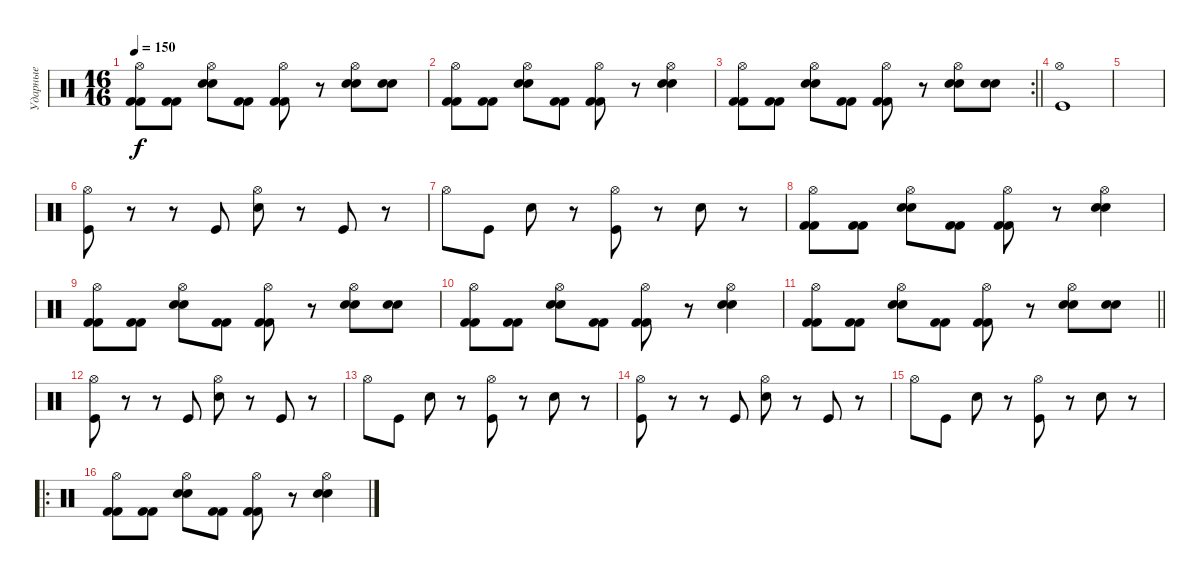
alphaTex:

\track ("Ударные" "Ударные") {instrument percussion}
\staff {score}
\articulation defaults
\ts (16 16)
\tempo 150
\clef neutral
\ks c
("Kick (hit) 2" "Kick (hit) 2" "Hi-Hat (open)").8{dy f} ("Kick (hit) 2" "Kick (hit) 2").8 ("Electric Snare (hit)" "Electric Snare (hit)" "Hi-Hat (open)").8 ("Kick (hit) 2" "Kick (hit) 2").8 ("Kick (hit) 2" "Kick (hit) 2" "Hi-Hat (open)").8 r.8 ("Electric Snare (hit)" "Electric Snare (hit)" "Hi-Hat (open)").8 ("Electric Snare (hit)" "Electric Snare (hit)").8 |
("Kick (hit) 2" "Kick (hit) 2" "Hi-Hat (open)").8 ("Kick (hit) 2" "Kick (hit) 2").8 ("Electric Snare (hit)" "Electric Snare (hit)" "Hi-Hat (open)").8 ("Kick (hit) 2" "Kick (hit) 2").8 ("Kick (hit) 2" "Kick (hit) 2" "Hi-Hat (open)").8 r.8 ("Electric Snare (hit)" "Electric Snare (hit)" "Hi-Hat (open)").4 |
\rc 2
\barLineRight lightlight
("Kick (hit) 2" "Kick (hit) 2" "Hi-Hat (open)").8 ("Kick (hit) 2" "Kick (hit) 2").8 ("Electric Snare (hit)" "Electric Snare (hit)" "Hi-Hat (open)").8 ("Kick (hit) 2" "Kick (hit) 2").8 ("Kick (hit) 2" "Kick (hit) 2" "Hi-Hat (open)").8 r.8 ("Electric Snare (hit)" "Electric Snare (hit)" "Hi-Hat (open)").8 ("Electric Snare (hit)" "Electric Snare (hit)").8 |
("Hi-Hat (open)" "Kick (hit)").1 |
|
("Hi-Hat (open)" "Kick (hit)").8 r.8 r.8 "Kick (hit)".8 ("Hi-Hat (open)" "Electric Snare (hit)").8 r.8 "Kick (hit)".8 r.8 |
"Hi-Hat (open)".8 "Kick (hit)".8 "Electric Snare (hit)".8 r.8 ("Hi-Hat (open)" "Kick (hit)").8 r.8 "Electric Snare (hit)".8 r.8 |
("Kick (hit) 2" "Kick (hit) 2" "Hi-Hat (open)").8 ("Kick (hit) 2" "Kick (hit) 2").8 ("Electric Snare (hit)" "Electric Snare (hit)" "Hi-Hat (open)").8 ("Kick (hit) 2" "Kick (hit) 2").8 ("Kick (hit) 2" "Kick (hit) 2" "Hi-Hat (open)").8 r.8 ("Electric Snare (hit)" "Electric Snare (hit)" "Hi-Hat (open)").4 |
("Kick (hit) 2" "Kick (hit) 2" "Hi-Hat (open)").8 ("Kick (hit) 2" "Kick (hit) 2").8 ("Electric Snare (hit)" "Electric Snare (hit)" "Hi-Hat (open)").8 ("Kick (hit) 2" "Kick (hit) 2").8 ("Kick (hit) 2" "Kick (hit) 2" "Hi-Hat (open)").8 r.8 ("Electric Snare (hit)" "Electric Snare (hit)" "Hi-Hat (open)").8 ("Electric Snare (hit)" "Electric Snare (hit)").8 |
("Kick (hit) 2" "Kick (hit) 2" "Hi-Hat (open)").8 ("Kick (hit) 2" "Kick (hit) 2").8 ("Electric Snare (hit)" "Electric Snare (hit)" "Hi-Hat (open)").8 ("Kick (hit) 2" "Kick (hit) 2").8 ("Kick (hit) 2" "Kick (hit) 2" "Hi-Hat (open)").8 r.8 ("Electric Snare (hit)" "Electric Snare (hit)" "Hi-Hat (open)").4 |
\barLineRight lightlight
("Kick (hit) 2" "Kick (hit) 2" "Hi-Hat (open)").8 ("Kick (hit) 2" "Kick (hit) 2").8 ("Electric Snare (hit)" "Electric Snare (hit)" "Hi-Hat (open)").8 ("Kick (hit) 2" "Kick (hit) 2").8 ("Kick (hit) 2" "Kick (hit) 2" "Hi-Hat (open)").8 r.8 ("Electric Snare (hit)" "Electric Snare (hit)" "Hi-Hat (open)").8 ("Electric Snare (hit)" "Electric Snare (hit)").8 |
("Hi-Hat (open)" "Kick (hit)").8 r.8 r.8 "Kick (hit)".8 ("Hi-Hat (open)" "Electric Snare (hit)").8 r.8 "Kick (hit)".8 r.8 |
"Hi-Hat (open)".8 "Kick (hit)".8 "Electric Snare (hit)".8 r.8 ("Hi-Hat (open)" "Kick (hit)").8 r.8 "Electric Snare (hit)".8 r.8 |
("Hi-Hat (open)" "Kick (hit)").8 r.8 r.8 "Kick (hit)".8 ("Hi-Hat (open)" "Electric Snare (hit)").8 r.8 "Kick (hit)".8 r.8 |
"Hi-Hat (open)".8 "Kick (hit)".8 "Electric Snare (hit)".8 r.8 ("Hi-Hat (open)" "Kick (hit)").8 r.8 "Electric Snare (hit)".8 r.8 |
\ro
("Kick (hit) 2" "Kick (hit) 2" "Hi-Hat (open)").8 ("Kick (hit) 2" "Kick (hit) 2").8 ("Electric Snare (hit)" "Electric Snare (hit)" "Hi-Hat (open)").8 ("Kick (hit) 2" "Kick (hit) 2").8 ("Kick (hit) 2" "Kick (hit) 2" "Hi-Hat (open)").8 r.8 ("Electric Snare (hit)" "Electric Snare (hit)" "Hi-Hat (open)").4
